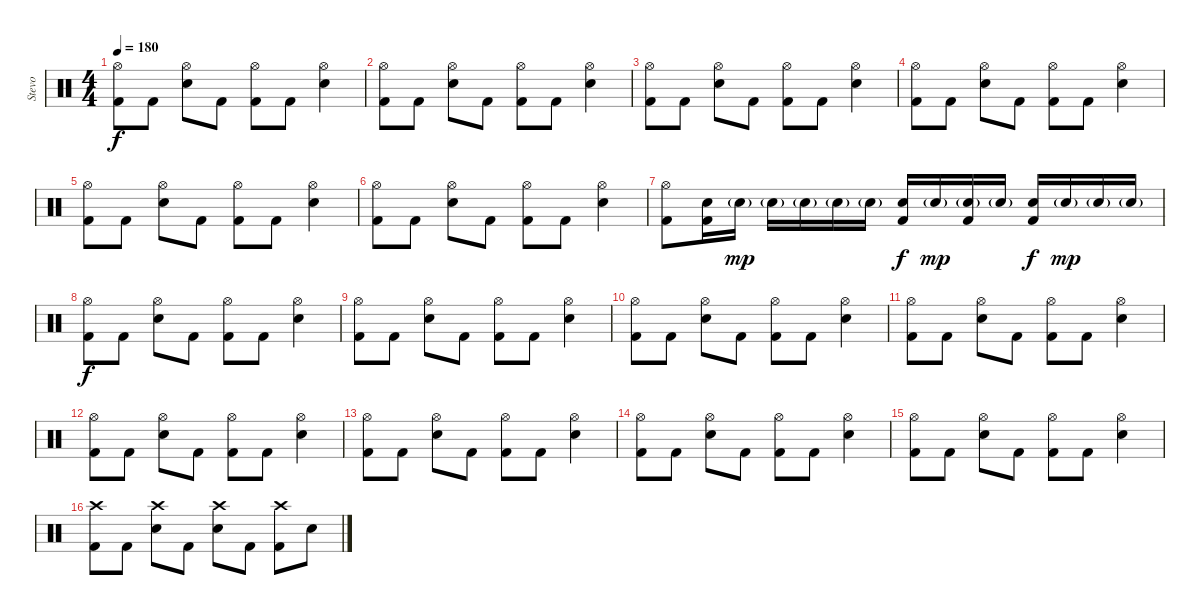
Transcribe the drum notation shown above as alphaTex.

\track ("Stevo" "Stevo") {instrument percussion}
\staff {score}
\articulation defaults
\ts (4 4)
\tempo 180
\clef neutral
\ks c
("Hi-Hat (open)" "Kick (hit) 2").8{dy f} "Kick (hit) 2".8 ("Hi-Hat (open)" "Snare (hit) 2").8 "Kick (hit) 2".8 ("Hi-Hat (open)" "Kick (hit) 2").8 "Kick (hit) 2".8 ("Hi-Hat (open)" "Snare (hit) 2").4 |
("Hi-Hat (open)" "Kick (hit) 2").8 "Kick (hit) 2".8 ("Hi-Hat (open)" "Snare (hit) 2").8 "Kick (hit) 2".8 ("Hi-Hat (open)" "Kick (hit) 2").8 "Kick (hit) 2".8 ("Hi-Hat (open)" "Snare (hit) 2").4 |
("Hi-Hat (open)" "Kick (hit) 2").8 "Kick (hit) 2".8 ("Hi-Hat (open)" "Snare (hit) 2").8 "Kick (hit) 2".8 ("Hi-Hat (open)" "Kick (hit) 2").8 "Kick (hit) 2".8 ("Hi-Hat (open)" "Snare (hit) 2").4 |
("Hi-Hat (open)" "Kick (hit) 2").8 "Kick (hit) 2".8 ("Hi-Hat (open)" "Snare (hit) 2").8 "Kick (hit) 2".8 ("Hi-Hat (open)" "Kick (hit) 2").8 "Kick (hit) 2".8 ("Hi-Hat (open)" "Snare (hit) 2").4 |
("Hi-Hat (open)" "Kick (hit) 2").8 "Kick (hit) 2".8 ("Hi-Hat (open)" "Snare (hit) 2").8 "Kick (hit) 2".8 ("Hi-Hat (open)" "Kick (hit) 2").8 "Kick (hit) 2".8 ("Hi-Hat (open)" "Snare (hit) 2").4 |
("Hi-Hat (open)" "Kick (hit) 2").8 "Kick (hit) 2".8 ("Hi-Hat (open)" "Snare (hit) 2").8 "Kick (hit) 2".8 ("Hi-Hat (open)" "Kick (hit) 2").8 "Kick (hit) 2".8 ("Hi-Hat (open)" "Snare (hit) 2").4 |
("Hi-Hat (open)" "Kick (hit) 2").8 ("Electric Snare (hit)" "Kick (hit) 2").16 "Electric Snare (hit)"{g}.16{dy mp} "Electric Snare (hit)"{g}.16 "Electric Snare (hit)"{g}.16 "Electric Snare (hit)"{g}.16 "Electric Snare (hit)"{g}.16 ("Electric Snare (hit)" "Kick (hit) 2").16{dy f} "Electric Snare (hit)"{g}.16{dy mp} ("Electric Snare (hit)"{g} "Kick (hit) 2").16 "Electric Snare (hit)"{g}.16 ("Electric Snare (hit)" "Kick (hit) 2").16{dy f} "Electric Snare (hit)"{g}.16{dy mp} "Electric Snare (hit)"{g}.16 "Electric Snare (hit)"{g}.16 |
("Hi-Hat (open)" "Kick (hit) 2").8{dy f} "Kick (hit) 2".8 ("Hi-Hat (open)" "Snare (hit) 2").8 "Kick (hit) 2".8 ("Hi-Hat (open)" "Kick (hit) 2").8 "Kick (hit) 2".8 ("Hi-Hat (open)" "Snare (hit) 2").4 |
("Hi-Hat (open)" "Kick (hit) 2").8 "Kick (hit) 2".8 ("Hi-Hat (open)" "Snare (hit) 2").8 "Kick (hit) 2".8 ("Hi-Hat (open)" "Kick (hit) 2").8 "Kick (hit) 2".8 ("Hi-Hat (open)" "Snare (hit) 2").4 |
("Hi-Hat (open)" "Kick (hit) 2").8 "Kick (hit) 2".8 ("Hi-Hat (open)" "Snare (hit) 2").8 "Kick (hit) 2".8 ("Hi-Hat (open)" "Kick (hit) 2").8 "Kick (hit) 2".8 ("Hi-Hat (open)" "Snare (hit) 2").4 |
("Hi-Hat (open)" "Kick (hit) 2").8 "Kick (hit) 2".8 ("Hi-Hat (open)" "Snare (hit) 2").8 "Kick (hit) 2".8 ("Hi-Hat (open)" "Kick (hit) 2").8 "Kick (hit) 2".8 ("Hi-Hat (open)" "Snare (hit) 2").4 |
("Hi-Hat (open)" "Kick (hit) 2").8 "Kick (hit) 2".8 ("Hi-Hat (open)" "Snare (hit) 2").8 "Kick (hit) 2".8 ("Hi-Hat (open)" "Kick (hit) 2").8 "Kick (hit) 2".8 ("Hi-Hat (open)" "Snare (hit) 2").4 |
("Hi-Hat (open)" "Kick (hit) 2").8 "Kick (hit) 2".8 ("Hi-Hat (open)" "Snare (hit) 2").8 "Kick (hit) 2".8 ("Hi-Hat (open)" "Kick (hit) 2").8 "Kick (hit) 2".8 ("Hi-Hat (open)" "Snare (hit) 2").4 |
("Hi-Hat (open)" "Kick (hit) 2").8 "Kick (hit) 2".8 ("Hi-Hat (open)" "Snare (hit) 2").8 "Kick (hit) 2".8 ("Hi-Hat (open)" "Kick (hit) 2").8 "Kick (hit) 2".8 ("Hi-Hat (open)" "Snare (hit) 2").4 |
("Hi-Hat (open)" "Kick (hit) 2").8 "Kick (hit) 2".8 ("Hi-Hat (open)" "Snare (hit) 2").8 "Kick (hit) 2".8 ("Hi-Hat (open)" "Kick (hit) 2").8 "Kick (hit) 2".8 ("Hi-Hat (open)" "Snare (hit) 2").4 |
("Crash high (hit)" "Kick (hit) 2").8 "Kick (hit) 2".8 ("Crash high (hit)" "Snare (hit) 2").8 "Kick (hit) 2".8 ("Crash high (hit)" "Snare (hit) 2").8 "Kick (hit) 2".8 ("Crash high (hit)" "Kick (hit) 2").8 "Snare (hit) 2".8
